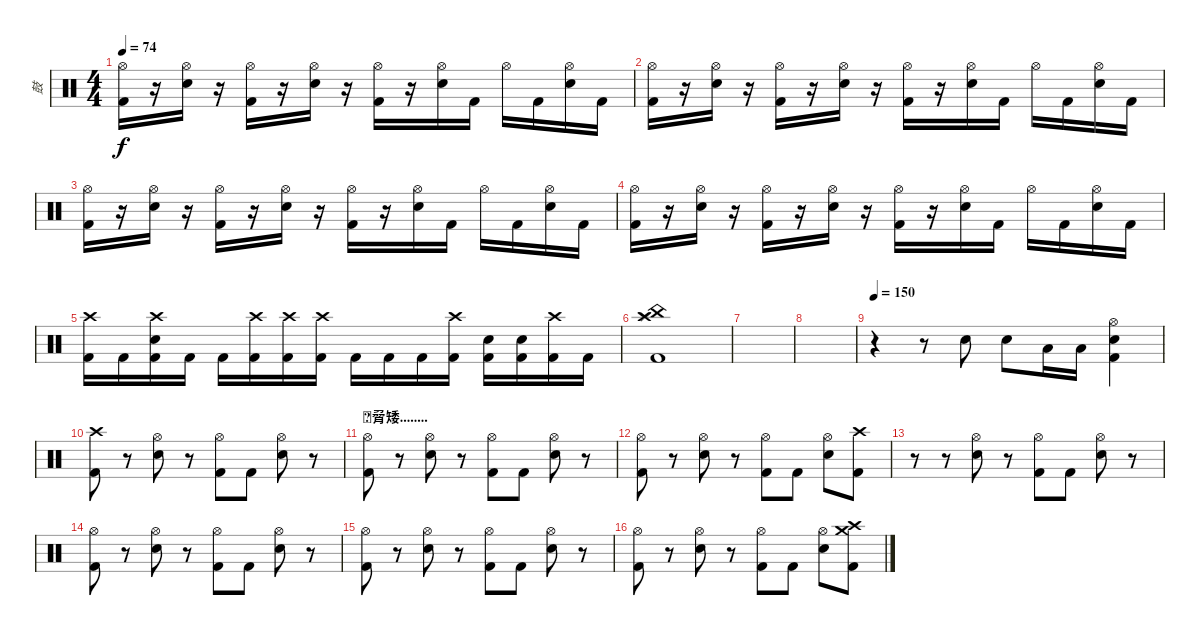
\track ("鼓" "鼓") {instrument percussion}
\staff {score}
\articulation defaults
\ts (4 4)
\tempo 74
\clef neutral
\ks c
("Hi-Hat (open)" "Kick (hit) 2").16{dy f} r.16 ("Hi-Hat (open)" "Electric Snare (hit)").16 r.16 ("Hi-Hat (open)" "Kick (hit) 2").16 r.16 ("Hi-Hat (open)" "Electric Snare (hit)").16 r.16 ("Hi-Hat (open)" "Kick (hit) 2").16 r.16 ("Hi-Hat (open)" "Electric Snare (hit)").16 "Kick (hit) 2".16 "Hi-Hat (open)".16 "Kick (hit) 2".16 ("Hi-Hat (open)" "Electric Snare (hit)").16 "Kick (hit) 2".16 |
("Hi-Hat (open)" "Kick (hit) 2").16 r.16 ("Hi-Hat (open)" "Electric Snare (hit)").16 r.16 ("Hi-Hat (open)" "Kick (hit) 2").16 r.16 ("Hi-Hat (open)" "Electric Snare (hit)").16 r.16 ("Hi-Hat (open)" "Kick (hit) 2").16 r.16 ("Hi-Hat (open)" "Electric Snare (hit)").16 "Kick (hit) 2".16 "Hi-Hat (open)".16 "Kick (hit) 2".16 ("Hi-Hat (open)" "Electric Snare (hit)").16 "Kick (hit) 2".16 |
("Hi-Hat (open)" "Kick (hit) 2").16 r.16 ("Hi-Hat (open)" "Electric Snare (hit)").16 r.16 ("Hi-Hat (open)" "Kick (hit) 2").16 r.16 ("Hi-Hat (open)" "Electric Snare (hit)").16 r.16 ("Hi-Hat (open)" "Kick (hit) 2").16 r.16 ("Hi-Hat (open)" "Electric Snare (hit)").16 "Kick (hit) 2".16 "Hi-Hat (open)".16 "Kick (hit) 2".16 ("Hi-Hat (open)" "Electric Snare (hit)").16 "Kick (hit) 2".16 |
("Hi-Hat (open)" "Kick (hit) 2").16 r.16 ("Hi-Hat (open)" "Electric Snare (hit)").16 r.16 ("Hi-Hat (open)" "Kick (hit) 2").16 r.16 ("Hi-Hat (open)" "Electric Snare (hit)").16 r.16 ("Hi-Hat (open)" "Kick (hit) 2").16 r.16 ("Hi-Hat (open)" "Electric Snare (hit)").16 "Kick (hit) 2".16 "Hi-Hat (open)".16 "Kick (hit) 2".16 ("Hi-Hat (open)" "Electric Snare (hit)").16 "Kick (hit) 2".16 |
("Crash high (hit)" "Kick (hit) 2").16 "Kick (hit) 2".16 ("Crash high (hit)" "Electric Snare (hit)" "Kick (hit) 2").16 "Kick (hit) 2".16 "Kick (hit) 2".16 ("Crash high (hit)" "Kick (hit) 2").16 ("Crash high (hit)" "Kick (hit) 2").16 ("Crash high (hit)" "Kick (hit) 2").16 "Kick (hit) 2".16 "Kick (hit) 2".16 "Kick (hit) 2".16 ("Crash high (hit)" "Kick (hit) 2").16 ("Electric Snare (hit)" "Kick (hit) 2").16 ("Electric Snare (hit)" "Kick (hit) 2").16 ("Crash high (hit)" "Kick (hit) 2").16 "Kick (hit) 2".16 |
("Crash high (hit)" "Splash (hit)" "China (hit)" "Kick (hit) 2").1 |
|
|
\tempo 150
r.4 r.8 "Snare (hit) 2".8 "Snare (hit) 2".8 "Low Tom (hit)".16 "Low Tom (hit)".16 ("Hi-Hat (open)" "Snare (hit) 2" "Kick (hit) 2").4 |
("Crash high (hit)" "Kick (hit) 2").8 r.8 ("Hi-Hat (open)" "Electric Snare (hit)").8 r.8 ("Hi-Hat (open)" "Kick (hit) 2").8 "Kick (hit) 2".8 ("Hi-Hat (open)" "Electric Snare (hit)").8 r.8 |
\section ("" "脋矮........")
("Hi-Hat (open)" "Kick (hit) 2").8 r.8 ("Hi-Hat (open)" "Electric Snare (hit)").8 r.8 ("Hi-Hat (open)" "Kick (hit) 2").8 "Kick (hit) 2".8 ("Hi-Hat (open)" "Electric Snare (hit)").8 r.8 |
("Hi-Hat (open)" "Kick (hit) 2").8 r.8 ("Hi-Hat (open)" "Electric Snare (hit)").8 r.8 ("Hi-Hat (open)" "Kick (hit) 2").8 "Kick (hit) 2".8 ("Hi-Hat (open)" "Electric Snare (hit)").8 ("Crash high (hit)" "Kick (hit) 2").8 |
r.8 r.8 ("Hi-Hat (open)" "Electric Snare (hit)").8 r.8 ("Hi-Hat (open)" "Kick (hit) 2").8 "Kick (hit) 2".8 ("Hi-Hat (open)" "Electric Snare (hit)").8 r.8 |
("Hi-Hat (open)" "Kick (hit) 2").8 r.8 ("Hi-Hat (open)" "Electric Snare (hit)").8 r.8 ("Hi-Hat (open)" "Kick (hit) 2").8 "Kick (hit) 2".8 ("Hi-Hat (open)" "Electric Snare (hit)").8 r.8 |
("Hi-Hat (open)" "Kick (hit) 2").8 r.8 ("Hi-Hat (open)" "Electric Snare (hit)").8 r.8 ("Hi-Hat (open)" "Kick (hit) 2").8 "Kick (hit) 2".8 ("Hi-Hat (open)" "Electric Snare (hit)").8 r.8 |
("Hi-Hat (open)" "Kick (hit) 2").8 r.8 ("Hi-Hat (open)" "Electric Snare (hit)").8 r.8 ("Hi-Hat (open)" "Kick (hit) 2").8 "Kick (hit) 2".8 ("Hi-Hat (open)" "Electric Snare (hit)").8 ("Crash medium (hit)" "Crash high (hit)" "Kick (hit) 2").8
